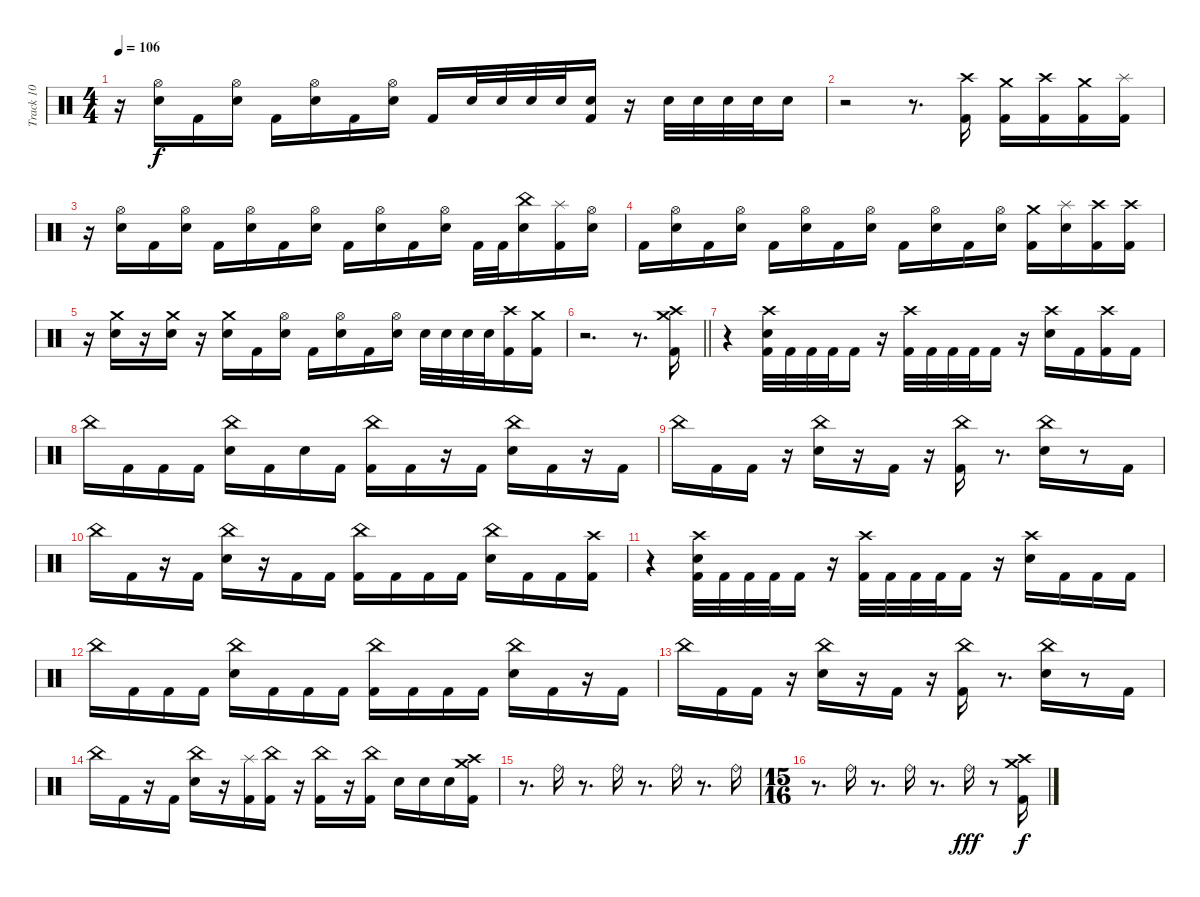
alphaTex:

\track ("Track 10" "Track 10") {instrument percussion}
\staff {score}
\articulation defaults
\ts (4 4)
\tempo 106
\clef neutral
\ks c
r.16{dy f} ("Snare (hit) 2" "Hi-Hat (open)").16 "Kick (hit) 2".16 ("Snare (hit) 2" "Hi-Hat (open)").16 "Kick (hit) 2".16 ("Snare (hit) 2" "Hi-Hat (open)").16 "Kick (hit) 2".16 ("Snare (hit) 2" "Hi-Hat (open)").16 "Kick (hit) 2".16 "Snare (hit) 2".32 "Snare (hit) 2".32 "Snare (hit) 2".32 "Snare (hit) 2".32 ("Kick (hit) 2" "Snare (hit) 2").16 r.16 "Snare (hit) 2".32 "Snare (hit) 2".32 "Snare (hit) 2".32 "Snare (hit) 2".32 "Snare (hit) 2".16 |
r.2 r.8{d} ("Kick (hit) 2" "Crash high (hit)").16 ("Kick (hit) 2" "Crash medium (hit)").16 ("Kick (hit) 2" "Crash high (hit)").16 ("Kick (hit) 2" "Crash medium (hit)").16 ("Kick (hit) 2" "Splash (hit)").16 |
r.16 ("Snare (hit) 2" "Hi-Hat (open)").16 "Kick (hit) 2".16 ("Snare (hit) 2" "Hi-Hat (open)").16 "Kick (hit) 2".16 ("Snare (hit) 2" "Hi-Hat (open)").16 "Kick (hit) 2".16 ("Snare (hit) 2" "Hi-Hat (open)").16 "Kick (hit) 2".16 ("Snare (hit) 2" "Hi-Hat (open)").16 "Kick (hit) 2".16 ("Snare (hit) 2" "Hi-Hat (open)").16 "Kick (hit) 2".32 "Kick (hit) 2".32 ("Snare (hit) 2" "China (hit)").16 ("Kick (hit) 2" "Splash (hit)").16 ("Snare (hit) 2" "Hi-Hat (open)").16 |
"Kick (hit) 2".16 ("Snare (hit) 2" "Hi-Hat (open)").16 "Kick (hit) 2".16 ("Snare (hit) 2" "Hi-Hat (open)").16 "Kick (hit) 2".16 ("Snare (hit) 2" "Hi-Hat (open)").16 "Kick (hit) 2".16 ("Snare (hit) 2" "Hi-Hat (open)").16 "Kick (hit) 2".16 ("Snare (hit) 2" "Hi-Hat (open)").16 "Kick (hit) 2".16 ("Snare (hit) 2" "Hi-Hat (open)").16 ("Kick (hit) 2" "Crash medium (hit)").16 ("Snare (hit) 2" "Splash (hit)").16 ("Kick (hit) 2" "Crash high (hit)").16 ("Kick (hit) 2" "Crash high (hit)").16 |
r.16 ("Snare (hit) 2" "Crash medium (hit)").16 r.16 ("Snare (hit) 2" "Crash medium (hit)").16 r.16 ("Snare (hit) 2" "Crash medium (hit)").16 "Kick (hit) 2".16 ("Snare (hit) 2" "Hi-Hat (open)").16 "Kick (hit) 2".16 ("Snare (hit) 2" "Hi-Hat (open)").16 "Kick (hit) 2".16 ("Snare (hit) 2" "Hi-Hat (open)").16 "Snare (hit) 2".32 "Snare (hit) 2".32 "Snare (hit) 2".32 "Snare (hit) 2".32 ("Kick (hit) 2" "Crash high (hit)").16 ("Kick (hit) 2" "Crash medium (hit)").16 |
\barLineRight lightlight
r.2{d} r.8{d} ("Kick (hit) 2" "Crash high (hit)" "Crash medium (hit)").16 |
r.4 ("Kick (hit) 2" "Snare (hit) 2" "Crash high (hit)").32 "Kick (hit) 2".32 "Kick (hit) 2".32 "Kick (hit) 2".32 "Kick (hit) 2".16 r.16 ("Kick (hit) 2" "Crash high (hit)").32 "Kick (hit) 2".32 "Kick (hit) 2".32 "Kick (hit) 2".32 "Kick (hit) 2".16 r.16 ("Snare (hit) 2" "Crash high (hit)").16 "Kick (hit) 2".16 ("Kick (hit) 2" "Crash high (hit)").16 "Kick (hit) 2".16 |
"China (hit)".16 "Kick (hit) 2".16 "Kick (hit) 2".16 "Kick (hit) 2".16 ("Snare (hit) 2" "China (hit)").16 "Kick (hit) 2".16 "Snare (hit) 2".16 "Kick (hit) 2".16 ("Kick (hit) 2" "China (hit)").16 "Kick (hit) 2".16 r.16 "Kick (hit) 2".16 ("Snare (hit) 2" "China (hit)").16 "Kick (hit) 2".16 r.16 "Kick (hit) 2".16 |
"China (hit)".16 "Kick (hit) 2".16 "Kick (hit) 2".16 r.16 ("Snare (hit) 2" "China (hit)").16 r.16 "Kick (hit) 2".16 r.16 ("Kick (hit) 2" "China (hit)").16 r.8{d} ("Snare (hit) 2" "China (hit)").16 r.8 "Kick (hit) 2".16 |
"China (hit)".16 "Kick (hit) 2".16 r.16 "Kick (hit) 2".16 ("Snare (hit) 2" "China (hit)").16 r.16 "Kick (hit) 2".16 "Kick (hit) 2".16 ("Kick (hit) 2" "China (hit)").16 "Kick (hit) 2".16 "Kick (hit) 2".16 "Kick (hit) 2".16 ("Snare (hit) 2" "China (hit)").16 "Kick (hit) 2".16 "Kick (hit) 2".16 ("Kick (hit) 2" "Crash high (hit)").16 |
r.4 ("Kick (hit) 2" "Snare (hit) 2" "Crash high (hit)").32 "Kick (hit) 2".32 "Kick (hit) 2".32 "Kick (hit) 2".32 "Kick (hit) 2".16 r.16 ("Kick (hit) 2" "Crash high (hit)").32 "Kick (hit) 2".32 "Kick (hit) 2".32 "Kick (hit) 2".32 "Kick (hit) 2".16 r.16 ("Snare (hit) 2" "Crash high (hit)").16 "Kick (hit) 2".16 "Kick (hit) 2".16 "Kick (hit) 2".16 |
"China (hit)".16 "Kick (hit) 2".16 "Kick (hit) 2".16 "Kick (hit) 2".16 ("Snare (hit) 2" "China (hit)").16 "Kick (hit) 2".16 "Kick (hit) 2".16 "Kick (hit) 2".16 ("Kick (hit) 2" "China (hit)").16 "Kick (hit) 2".16 "Kick (hit) 2".16 "Kick (hit) 2".16 ("Snare (hit) 2" "China (hit)").16 "Kick (hit) 2".16 r.16 "Kick (hit) 2".16 |
"China (hit)".16 "Kick (hit) 2".16 "Kick (hit) 2".16 r.16 ("Snare (hit) 2" "China (hit)").16 r.16 "Kick (hit) 2".16 r.16 ("Kick (hit) 2" "China (hit)").16 r.8{d} ("Snare (hit) 2" "China (hit)").16 r.8 "Kick (hit) 2".16 |
"China (hit)".16 "Kick (hit) 2".16 r.16 "Kick (hit) 2".16 ("Snare (hit) 2" "China (hit)").16 r.16 ("Kick (hit) 2" "Splash (hit)").16 ("Kick (hit) 2" "China (hit)").16 r.16 ("Kick (hit) 2" "China (hit)").16 r.16 ("Kick (hit) 2" "China (hit)").16 "Snare (hit) 2".16 "Snare (hit) 2".16 "Snare (hit) 2".16 ("Kick (hit) 2" "Crash high (hit)" "Crash medium (hit)").16 |
r.8{d} "Ride (bell)".16 r.8{d} "Ride (bell)".16 r.8{d} "Ride (bell)".16 r.8{d} "Ride (bell)".16 |
\ts (15 16)
r.8{d} "Ride (bell)".16 r.8{d} "Ride (bell)".16 r.8{d} "Ride (bell)".16{dy fff} r.8 ("Kick (hit) 2" "Crash high (hit)" "Crash medium (hit)").16{dy f}
